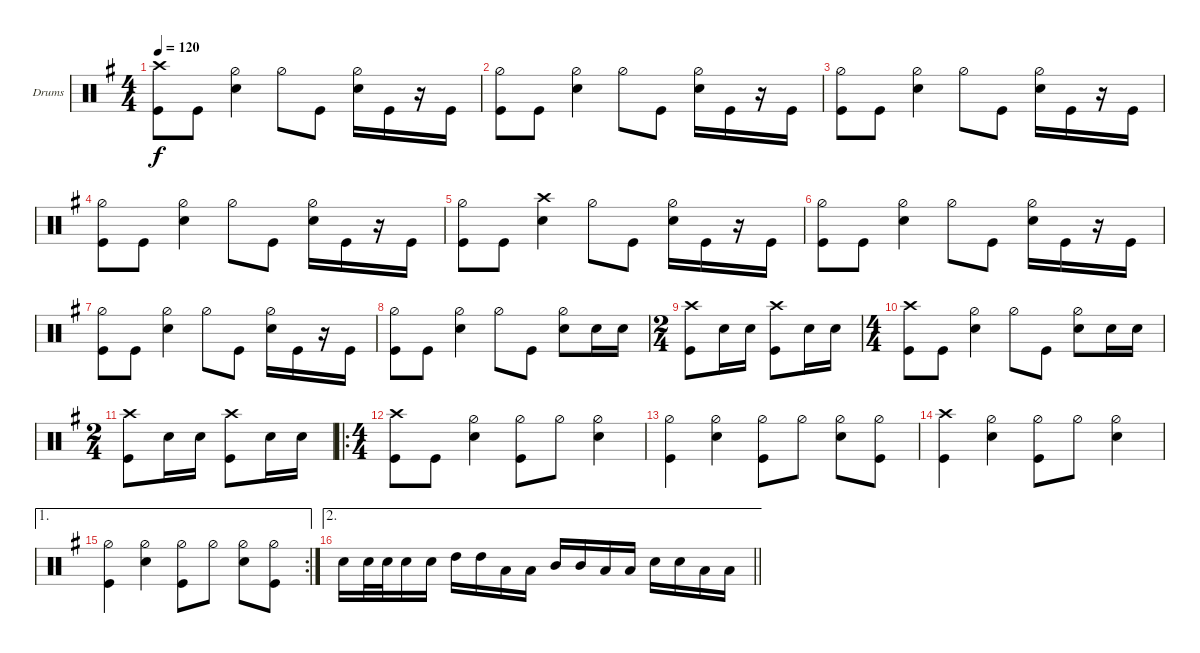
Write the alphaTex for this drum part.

\defaultSystemsLayout 4
\bracketExtendMode groupsimilarinstruments
\firstSystemTrackNameOrientation horizontal
\otherSystemsTrackNameOrientation horizontal
\track ("Drums" "Drums") {instrument percussion}
\staff {score}
\articulation defaults
\ts (4 4)
\tempo 120
\clef neutral
\scale
0.333333
\ks g
("Kick (hit)" "Crash high (hit)").8{dy f} "Kick (hit)".8 ("Snare (hit) 2" "Hi-Hat (half)").4 "Hi-Hat (half)".8 "Kick (hit)".8 ("Snare (hit) 2" "Hi-Hat (half)").16 "Kick (hit)".16 r.16 "Kick (hit)".16 |
\scale
0.333333 ("Kick (hit)" "Hi-Hat (half)").8 "Kick (hit)".8 ("Snare (hit) 2" "Hi-Hat (half)").4 "Hi-Hat (half)".8 "Kick (hit)".8 ("Snare (hit) 2" "Hi-Hat (half)").16 "Kick (hit)".16 r.16 "Kick (hit)".16 |
\scale
0.333333 ("Kick (hit)" "Hi-Hat (half)").8 "Kick (hit)".8 ("Snare (hit) 2" "Hi-Hat (half)").4 "Hi-Hat (half)".8 "Kick (hit)".8 ("Snare (hit) 2" "Hi-Hat (half)").16 "Kick (hit)".16 r.16 "Kick (hit)".16 |
\scale
0.333333 ("Kick (hit)" "Hi-Hat (half)").8 "Kick (hit)".8 ("Snare (hit) 2" "Hi-Hat (half)").4 "Hi-Hat (half)".8 "Kick (hit)".8 ("Snare (hit) 2" "Hi-Hat (half)").16 "Kick (hit)".16 r.16 "Kick (hit)".16 |
\scale
0.333333 ("Kick (hit)" "Hi-Hat (half)").8 "Kick (hit)".8 ("Snare (hit) 2" "Crash high (hit)").4 "Hi-Hat (half)".8 "Kick (hit)".8 ("Snare (hit) 2" "Hi-Hat (half)").16 "Kick (hit)".16 r.16 "Kick (hit)".16 |
\scale
0.333333 ("Kick (hit)" "Hi-Hat (half)").8 "Kick (hit)".8 ("Snare (hit) 2" "Hi-Hat (half)").4 "Hi-Hat (half)".8 "Kick (hit)".8 ("Snare (hit) 2" "Hi-Hat (half)").16 "Kick (hit)".16 r.16 "Kick (hit)".16 |
\scale
0.333333 ("Kick (hit)" "Hi-Hat (half)").8 "Kick (hit)".8 ("Snare (hit) 2" "Hi-Hat (half)").4 "Hi-Hat (half)".8 "Kick (hit)".8 ("Snare (hit) 2" "Hi-Hat (half)").16 "Kick (hit)".16 r.16 "Kick (hit)".16 |
\scale
0.333333 ("Kick (hit)" "Hi-Hat (half)").8 "Kick (hit)".8 ("Snare (hit) 2" "Hi-Hat (half)").4 "Hi-Hat (half)".8 "Kick (hit)".8 ("Snare (hit) 2" "Hi-Hat (half)").8 "Snare (hit) 2".16 "Snare (hit) 2".16 |
\ts (2 4)
\scale
0.333333 ("Kick (hit)" "Crash high (hit)").8 "Snare (hit) 2".16 "Snare (hit) 2".16 ("Kick (hit)" "Crash high (hit)").8 "Snare (hit) 2".16 "Snare (hit) 2".16 |
\ts (4 4)
\scale
0.333333 ("Kick (hit)" "Crash high (hit)").8 "Kick (hit)".8 ("Snare (hit) 2" "Hi-Hat (half)").4 "Hi-Hat (half)".8 "Kick (hit)".8 ("Snare (hit) 2" "Hi-Hat (half)").8 "Snare (hit) 2".16 "Snare (hit) 2".16 |
\ts (2 4)
\scale
0.333333 ("Kick (hit)" "Crash high (hit)").8 "Snare (hit) 2".16 "Snare (hit) 2".16 ("Kick (hit)" "Crash high (hit)").8 "Snare (hit) 2".16 "Snare (hit) 2".16 |
\ro
\ts (4 4)
\scale
0.502183 ("Kick (hit)" "Crash high (hit)").8 "Kick (hit)".8 ("Snare (hit) 2" "Hi-Hat (half)").4 ("Kick (hit)" "Hi-Hat (half)").8 "Hi-Hat (half)".8 ("Snare (hit) 2" "Hi-Hat (half)").4 |
\scale
0.248908 ("Kick (hit)" "Hi-Hat (half)").4 ("Snare (hit) 2" "Hi-Hat (half)").4 ("Kick (hit)" "Hi-Hat (half)").8 "Hi-Hat (half)".8 ("Snare (hit) 2" "Hi-Hat (half)").8 ("Kick (hit)" "Hi-Hat (half)").8 |
\scale
0.248908 ("Kick (hit)" "Crash high (hit)").4 ("Snare (hit) 2" "Hi-Hat (half)").4 ("Kick (hit)" "Hi-Hat (half)").8 "Hi-Hat (half)".8 ("Snare (hit) 2" "Hi-Hat (half)").4 |
\ae 1
\rc 2
("Kick (hit)" "Hi-Hat (half)").4 ("Snare (hit) 2" "Hi-Hat (half)").4 ("Kick (hit)" "Hi-Hat (half)").8 "Hi-Hat (half)".8 ("Snare (hit) 2" "Hi-Hat (half)").8 ("Kick (hit)" "Hi-Hat (half)").8 |
\ae 2
\barLineRight lightlight "Snare (hit) 2".16 "Snare (hit) 2".32 "Snare (hit) 2".32 "Snare (hit) 2".16 "Snare (hit) 2".16 "High Tom (hit)".16 "High Tom (hit)".16 "Low Tom (hit)".16 "Low Tom (hit)".16 "Mid Tom (hit)".16 "Mid Tom (hit)".16 "Low Tom (hit)".16 "Low Tom (hit)".16 "Snare (hit) 2".16 "Snare (hit) 2".16 "Low Tom (hit)".16 "Low Tom (hit)".16
